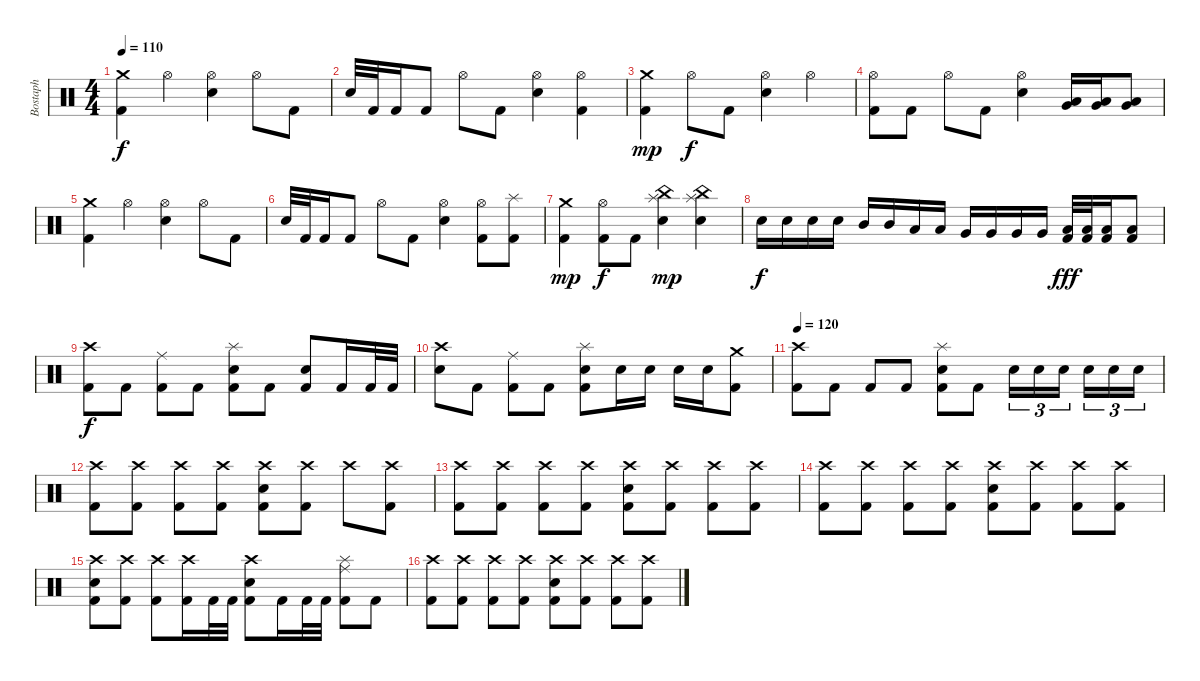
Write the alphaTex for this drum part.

\track ("Bostaph" "Bostaph") {instrument percussion}
\staff {score}
\articulation defaults
\ts (4 4)
\tempo 110
\clef neutral
\ks c
("Crash medium (hit)" "Kick (hit) 2").4{dy f} "Hi-Hat (open)".4 ("Electric Snare (hit)" "Hi-Hat (open)").4 "Hi-Hat (open)".8 "Kick (hit) 2".8 |
"Electric Snare (hit)".32 "Kick (hit) 2".32 "Kick (hit) 2".16 "Kick (hit) 2".8 "Hi-Hat (open)".8 "Kick (hit) 2".8 ("Electric Snare (hit)" "Hi-Hat (open)").4 ("Kick (hit) 2" "Hi-Hat (open)").4 |
("Kick (hit) 2" "Crash medium (hit)").4{dy mp} "Hi-Hat (open)".8{dy f} "Kick (hit) 2".8 ("Electric Snare (hit)" "Hi-Hat (open)").4 "Hi-Hat (open)".4 |
("Hi-Hat (open)" "Kick (hit) 2").8 "Kick (hit) 2".8 "Hi-Hat (open)".8 "Kick (hit) 2".8 ("Hi-Hat (open)" "Electric Snare (hit)").4 ("Very Low Tom (hit)" "Low Tom (hit)").16 ("Very Low Tom (hit)" "Low Tom (hit)").16 ("Low Floor Tom (hit)" "Very Low Tom (hit)").8 |
("Crash medium (hit)" "Kick (hit) 2").4 "Hi-Hat (open)".4 ("Electric Snare (hit)" "Hi-Hat (open)").4 "Hi-Hat (open)".8 "Kick (hit) 2".8 |
"Electric Snare (hit)".32 "Kick (hit) 2".32 "Kick (hit) 2".16 "Kick (hit) 2".8 "Hi-Hat (open)".8 "Kick (hit) 2".8 ("Electric Snare (hit)" "Hi-Hat (open)").4 ("Kick (hit) 2" "Hi-Hat (open)").8 ("Kick (hit) 2" "Splash (hit)").8 |
("Kick (hit) 2" "Crash medium (hit)").4{dy mp} ("Kick (hit) 2" "Hi-Hat (open)").8{dy f} "Kick (hit) 2".8 ("Splash (hit)" "China (hit)" "Electric Snare (hit)").4{dy mp} ("Splash (hit)" "China (hit)" "Electric Snare (hit)").4 |
"Electric Snare (hit)".16{dy f} "Electric Snare (hit)".16 "Electric Snare (hit)".16 "Electric Snare (hit)".16 "Mid Tom (hit)".16 "Mid Tom (hit)".16 "Low Tom (hit)".16 "Low Tom (hit)".16 "Very Low Tom (hit)".16 "Very Low Tom (hit)".16 "Very Low Tom (hit)".16 "Very Low Tom (hit)".16 ("Kick (hit) 2" "Low Floor Tom (hit)").32{dy fff} ("Kick (hit) 2" "Low Floor Tom (hit)").32 ("Kick (hit) 2" "Low Floor Tom (hit)").16 ("Kick (hit) 2" "Low Floor Tom (hit)").8 |
("Crash high (hit)" "Kick (hit) 2").8{dy f} "Kick (hit) 2".8 ("Ride (middle)" "Kick (hit) 2").8 "Kick (hit) 2".8 ("Splash (hit)" "Electric Snare (hit)" "Kick (hit) 2").8 "Kick (hit) 2".8 ("Electric Snare (hit)" "Kick (hit) 2").8 "Kick (hit) 2".16 "Kick (hit) 2".32 "Kick (hit) 2".32 |
("Crash high (hit)" "Electric Snare (hit)").8 "Kick (hit) 2".8 ("Ride (middle)" "Kick (hit) 2").8 "Kick (hit) 2".8 ("Splash (hit)" "Electric Snare (hit)" "Kick (hit) 2").8 "Electric Snare (hit)".16 "Electric Snare (hit)".16 "Electric Snare (hit)".16 "Electric Snare (hit)".16 ("Crash medium (hit)" "Kick (hit) 2").8 |
\tempo 120
("Crash high (hit)" "Kick (hit) 2").8 "Kick (hit) 2".8 "Kick (hit) 2".8 "Kick (hit) 2".8 ("Splash (hit)" "Electric Snare (hit)" "Kick (hit) 2").8 "Kick (hit) 2".8 "Electric Snare (hit)".16{tu (3 2)} "Electric Snare (hit)".16{tu (3 2)} "Electric Snare (hit)".16{tu (3 2)} "Electric Snare (hit)".16{tu (3 2)} "Electric Snare (hit)".16{tu (3 2)} "Electric Snare (hit)".16{tu (3 2)} |
("Crash high (hit)" "Kick (hit) 2").8 ("Crash high (hit)" "Kick (hit) 2").8 ("Crash high (hit)" "Kick (hit) 2").8 ("Crash high (hit)" "Kick (hit) 2").8 ("Crash high (hit)" "Electric Snare (hit)" "Kick (hit) 2").8 ("Crash high (hit)" "Kick (hit) 2").8 "Crash high (hit)".8 ("Crash high (hit)" "Kick (hit) 2").8 |
("Crash high (hit)" "Kick (hit) 2").8 ("Crash high (hit)" "Kick (hit) 2").8 ("Crash high (hit)" "Kick (hit) 2").8 ("Crash high (hit)" "Kick (hit) 2").8 ("Crash high (hit)" "Electric Snare (hit)" "Kick (hit) 2").8 ("Crash high (hit)" "Kick (hit) 2").8 ("Crash high (hit)" "Kick (hit) 2").8 ("Crash high (hit)" "Kick (hit) 2").8 |
("Crash high (hit)" "Kick (hit) 2").8 ("Crash high (hit)" "Kick (hit) 2").8 ("Crash high (hit)" "Kick (hit) 2").8 ("Crash high (hit)" "Kick (hit) 2").8 ("Crash high (hit)" "Electric Snare (hit)" "Kick (hit) 2").8 ("Crash high (hit)" "Kick (hit) 2").8 ("Crash high (hit)" "Kick (hit) 2").8 ("Crash high (hit)" "Kick (hit) 2").8 |
("Crash high (hit)" "Electric Snare (hit)" "Kick (hit) 2").8 ("Crash high (hit)" "Kick (hit) 2").8 ("Crash high (hit)" "Kick (hit) 2").8 ("Crash high (hit)" "Kick (hit) 2").16 "Kick (hit) 2".32 "Kick (hit) 2".32 ("Crash high (hit)" "Electric Snare (hit)" "Kick (hit) 2").8 "Kick (hit) 2".16 "Kick (hit) 2".32 "Kick (hit) 2".32 ("Ride (middle)" "Splash (hit)" "Kick (hit) 2").8 "Kick (hit) 2".8 |
("Crash high (hit)" "Kick (hit) 2").8 ("Crash high (hit)" "Kick (hit) 2").8 ("Crash high (hit)" "Kick (hit) 2").8 ("Crash high (hit)" "Kick (hit) 2").8 ("Crash high (hit)" "Electric Snare (hit)" "Kick (hit) 2").8 ("Crash high (hit)" "Kick (hit) 2").8 ("Crash high (hit)" "Kick (hit) 2").8 ("Crash high (hit)" "Kick (hit) 2").8
